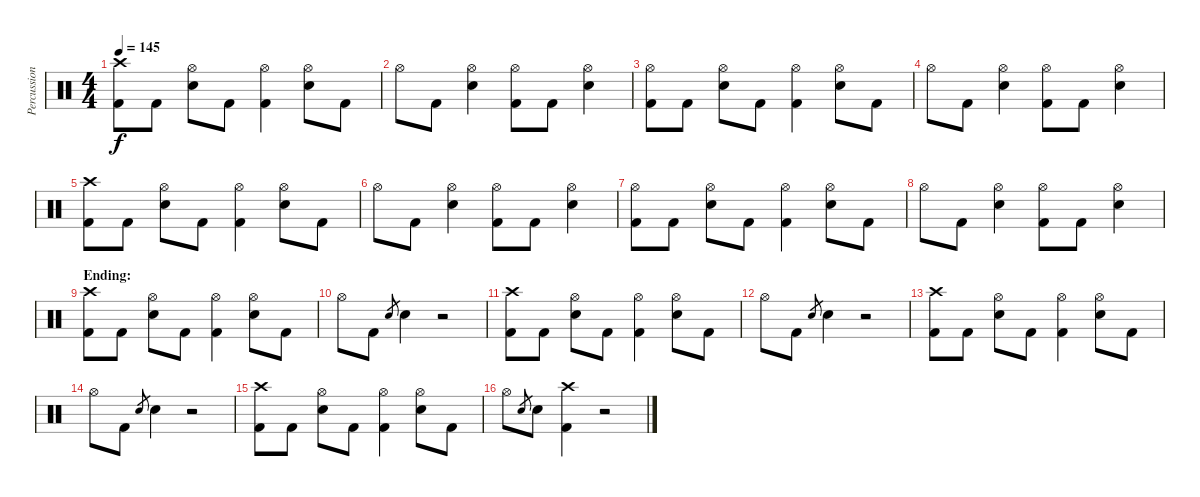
\track ("Percussion" "Percussion") {instrument percussion}
\staff {score}
\articulation defaults
\ts (4 4)
\tempo 145
\clef neutral
\ks c
("Crash high (hit)" "Kick (hit) 2").8{dy f} "Kick (hit) 2".8 ("Hi-Hat (open)" "Snare (hit) 2").8 "Kick (hit) 2".8 ("Hi-Hat (open)" "Kick (hit) 2").4 ("Hi-Hat (open)" "Snare (hit) 2").8 "Kick (hit) 2".8 |
"Hi-Hat (open)".8 "Kick (hit) 2".8 ("Hi-Hat (open)" "Snare (hit) 2").4 ("Hi-Hat (open)" "Kick (hit) 2").8 "Kick (hit) 2".8 ("Hi-Hat (open)" "Snare (hit) 2").4 |
("Hi-Hat (open)" "Kick (hit) 2").8 "Kick (hit) 2".8 ("Hi-Hat (open)" "Snare (hit) 2").8 "Kick (hit) 2".8 ("Hi-Hat (open)" "Kick (hit) 2").4 ("Hi-Hat (open)" "Snare (hit) 2").8 "Kick (hit) 2".8 |
"Hi-Hat (open)".8 "Kick (hit) 2".8 ("Hi-Hat (open)" "Snare (hit) 2").4 ("Hi-Hat (open)" "Kick (hit) 2").8 "Kick (hit) 2".8 ("Hi-Hat (open)" "Snare (hit) 2").4 |
("Crash high (hit)" "Kick (hit) 2").8 "Kick (hit) 2".8 ("Hi-Hat (open)" "Snare (hit) 2").8 "Kick (hit) 2".8 ("Hi-Hat (open)" "Kick (hit) 2").4 ("Hi-Hat (open)" "Snare (hit) 2").8 "Kick (hit) 2".8 |
"Hi-Hat (open)".8 "Kick (hit) 2".8 ("Hi-Hat (open)" "Snare (hit) 2").4 ("Hi-Hat (open)" "Kick (hit) 2").8 "Kick (hit) 2".8 ("Hi-Hat (open)" "Snare (hit) 2").4 |
("Hi-Hat (open)" "Kick (hit) 2").8 "Kick (hit) 2".8 ("Hi-Hat (open)" "Snare (hit) 2").8 "Kick (hit) 2".8 ("Hi-Hat (open)" "Kick (hit) 2").4 ("Hi-Hat (open)" "Snare (hit) 2").8 "Kick (hit) 2".8 |
"Hi-Hat (open)".8 "Kick (hit) 2".8 ("Hi-Hat (open)" "Snare (hit) 2").4 ("Hi-Hat (open)" "Kick (hit) 2").8 "Kick (hit) 2".8 ("Hi-Hat (open)" "Snare (hit) 2").4 |
\section ("" "Ending:")
("Crash high (hit)" "Kick (hit) 2").8 "Kick (hit) 2".8 ("Hi-Hat (open)" "Snare (hit) 2").8 "Kick (hit) 2".8 ("Hi-Hat (open)" "Kick (hit) 2").4 ("Hi-Hat (open)" "Snare (hit) 2").8 "Kick (hit) 2".8 |
"Hi-Hat (open)".8 "Kick (hit) 2".8 "Snare (hit) 2".8{gr} "Snare (hit) 2".4 r.2 |
("Crash high (hit)" "Kick (hit) 2").8 "Kick (hit) 2".8 ("Hi-Hat (open)" "Snare (hit) 2").8 "Kick (hit) 2".8 ("Hi-Hat (open)" "Kick (hit) 2").4 ("Hi-Hat (open)" "Snare (hit) 2").8 "Kick (hit) 2".8 |
"Hi-Hat (open)".8 "Kick (hit) 2".8 "Snare (hit) 2".8{gr} "Snare (hit) 2".4 r.2 |
("Crash high (hit)" "Kick (hit) 2").8 "Kick (hit) 2".8 ("Hi-Hat (open)" "Snare (hit) 2").8 "Kick (hit) 2".8 ("Hi-Hat (open)" "Kick (hit) 2").4 ("Hi-Hat (open)" "Snare (hit) 2").8 "Kick (hit) 2".8 |
"Hi-Hat (open)".8 "Kick (hit) 2".8 "Snare (hit) 2".8{gr} "Snare (hit) 2".4 r.2 |
("Crash high (hit)" "Kick (hit) 2").8 "Kick (hit) 2".8 ("Hi-Hat (open)" "Snare (hit) 2").8 "Kick (hit) 2".8 ("Hi-Hat (open)" "Kick (hit) 2").4 ("Hi-Hat (open)" "Snare (hit) 2").8 "Kick (hit) 2".8 |
"Hi-Hat (open)".8 "Snare (hit) 2".8{gr} "Snare (hit) 2".8 ("Crash high (hit)" "Kick (hit) 2").4 r.2
